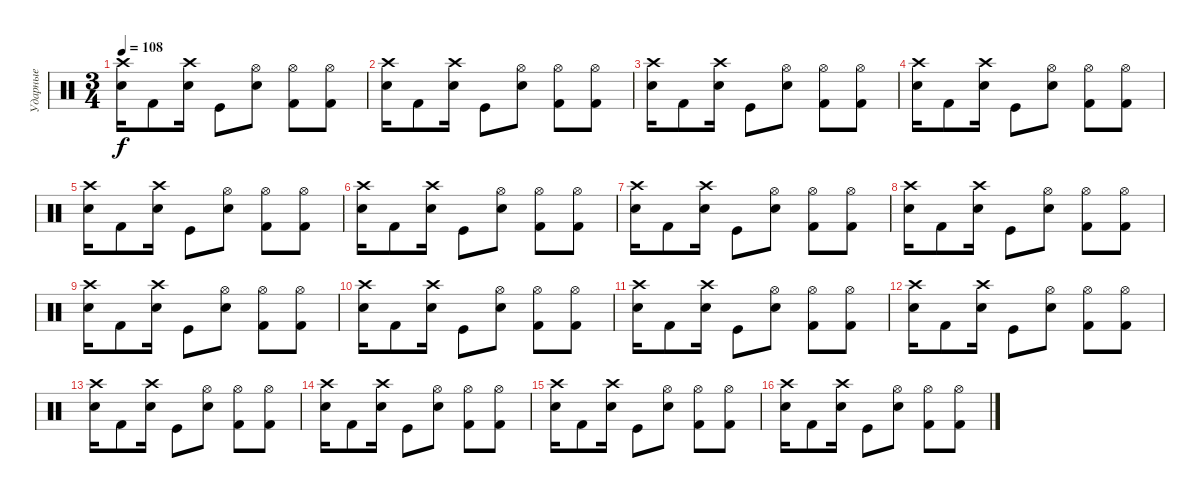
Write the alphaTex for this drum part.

\track ("Ударные" "Ударные") {instrument percussion}
\staff {score}
\articulation defaults
\ts (3 4)
\tempo 108
\clef neutral
\ks c
("Snare (hit) 2" "Crash high (hit)").16{dy f} "Kick (hit) 2".8 ("Snare (hit) 2" "Crash high (hit)").16 "Kick (hit)".8 ("Snare (hit) 2" "Hi-Hat (open)").8 ("Kick (hit) 2" "Hi-Hat (open)").8 ("Kick (hit) 2" "Hi-Hat (open)").8 |
("Snare (hit) 2" "Crash high (hit)").16 "Kick (hit) 2".8 ("Snare (hit) 2" "Crash high (hit)").16 "Kick (hit)".8 ("Snare (hit) 2" "Hi-Hat (open)").8 ("Kick (hit) 2" "Hi-Hat (open)").8 ("Kick (hit) 2" "Hi-Hat (open)").8 |
("Snare (hit) 2" "Crash high (hit)").16 "Kick (hit) 2".8 ("Snare (hit) 2" "Crash high (hit)").16 "Kick (hit)".8 ("Snare (hit) 2" "Hi-Hat (open)").8 ("Kick (hit) 2" "Hi-Hat (open)").8 ("Kick (hit) 2" "Hi-Hat (open)").8 |
("Snare (hit) 2" "Crash high (hit)").16 "Kick (hit) 2".8 ("Snare (hit) 2" "Crash high (hit)").16 "Kick (hit)".8 ("Snare (hit) 2" "Hi-Hat (open)").8 ("Kick (hit) 2" "Hi-Hat (open)").8 ("Kick (hit) 2" "Hi-Hat (open)").8 |
("Snare (hit) 2" "Crash high (hit)").16 "Kick (hit) 2".8 ("Snare (hit) 2" "Crash high (hit)").16 "Kick (hit)".8 ("Snare (hit) 2" "Hi-Hat (open)").8 ("Kick (hit) 2" "Hi-Hat (open)").8 ("Kick (hit) 2" "Hi-Hat (open)").8 |
("Snare (hit) 2" "Crash high (hit)").16 "Kick (hit) 2".8 ("Snare (hit) 2" "Crash high (hit)").16 "Kick (hit)".8 ("Snare (hit) 2" "Hi-Hat (open)").8 ("Kick (hit) 2" "Hi-Hat (open)").8 ("Kick (hit) 2" "Hi-Hat (open)").8 |
("Snare (hit) 2" "Crash high (hit)").16 "Kick (hit) 2".8 ("Snare (hit) 2" "Crash high (hit)").16 "Kick (hit)".8 ("Snare (hit) 2" "Hi-Hat (open)").8 ("Kick (hit) 2" "Hi-Hat (open)").8 ("Kick (hit) 2" "Hi-Hat (open)").8 |
("Snare (hit) 2" "Crash high (hit)").16 "Kick (hit) 2".8 ("Snare (hit) 2" "Crash high (hit)").16 "Kick (hit)".8 ("Snare (hit) 2" "Hi-Hat (open)").8 ("Kick (hit) 2" "Hi-Hat (open)").8 ("Kick (hit) 2" "Hi-Hat (open)").8 |
("Snare (hit) 2" "Crash high (hit)").16 "Kick (hit) 2".8 ("Snare (hit) 2" "Crash high (hit)").16 "Kick (hit)".8 ("Snare (hit) 2" "Hi-Hat (open)").8 ("Kick (hit) 2" "Hi-Hat (open)").8 ("Kick (hit) 2" "Hi-Hat (open)").8 |
("Snare (hit) 2" "Crash high (hit)").16 "Kick (hit) 2".8 ("Snare (hit) 2" "Crash high (hit)").16 "Kick (hit)".8 ("Snare (hit) 2" "Hi-Hat (open)").8 ("Kick (hit) 2" "Hi-Hat (open)").8 ("Kick (hit) 2" "Hi-Hat (open)").8 |
("Snare (hit) 2" "Crash high (hit)").16 "Kick (hit) 2".8 ("Snare (hit) 2" "Crash high (hit)").16 "Kick (hit)".8 ("Snare (hit) 2" "Hi-Hat (open)").8 ("Kick (hit) 2" "Hi-Hat (open)").8 ("Kick (hit) 2" "Hi-Hat (open)").8 |
("Snare (hit) 2" "Crash high (hit)").16 "Kick (hit) 2".8 ("Snare (hit) 2" "Crash high (hit)").16 "Kick (hit)".8 ("Snare (hit) 2" "Hi-Hat (open)").8 ("Kick (hit) 2" "Hi-Hat (open)").8 ("Kick (hit) 2" "Hi-Hat (open)").8 |
("Snare (hit) 2" "Crash high (hit)").16 "Kick (hit) 2".8 ("Snare (hit) 2" "Crash high (hit)").16 "Kick (hit)".8 ("Snare (hit) 2" "Hi-Hat (open)").8 ("Kick (hit) 2" "Hi-Hat (open)").8 ("Kick (hit) 2" "Hi-Hat (open)").8 |
("Snare (hit) 2" "Crash high (hit)").16 "Kick (hit) 2".8 ("Snare (hit) 2" "Crash high (hit)").16 "Kick (hit)".8 ("Snare (hit) 2" "Hi-Hat (open)").8 ("Kick (hit) 2" "Hi-Hat (open)").8 ("Kick (hit) 2" "Hi-Hat (open)").8 |
("Snare (hit) 2" "Crash high (hit)").16 "Kick (hit) 2".8 ("Snare (hit) 2" "Crash high (hit)").16 "Kick (hit)".8 ("Snare (hit) 2" "Hi-Hat (open)").8 ("Kick (hit) 2" "Hi-Hat (open)").8 ("Kick (hit) 2" "Hi-Hat (open)").8 |
("Snare (hit) 2" "Crash high (hit)").16 "Kick (hit) 2".8 ("Snare (hit) 2" "Crash high (hit)").16 "Kick (hit)".8 ("Snare (hit) 2" "Hi-Hat (open)").8 ("Kick (hit) 2" "Hi-Hat (open)").8 ("Kick (hit) 2" "Hi-Hat (open)").8
